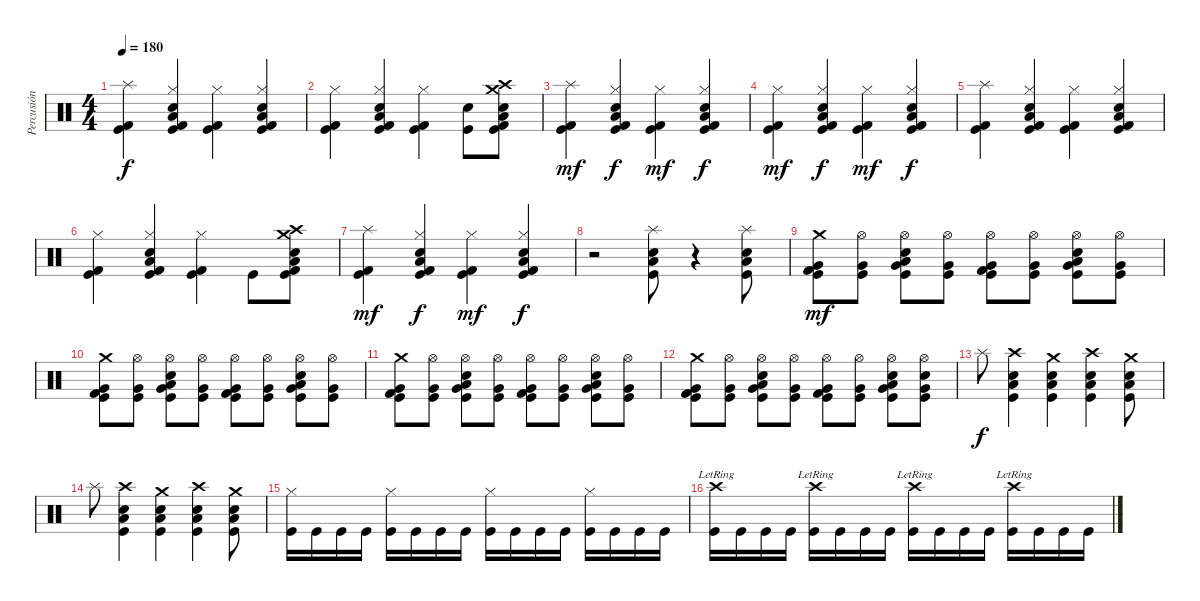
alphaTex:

\track ("Percusión" "Percusión") {instrument percussion}
\staff {score}
\articulation defaults
\ts (4 4)
\tempo 180
\clef neutral
\ks c
("Splash (hit)" "Kick (hit) 2" "Kick (hit)").4{dy f} ("Hi-Hat (closed)" "Electric Snare (hit)" "Low Tom (hit)" "Kick (hit) 2" "Kick (hit)").4 ("Hi-Hat (closed)" "Kick (hit) 2" "Kick (hit)").4 ("Hi-Hat (closed)" "Electric Snare (hit)" "Low Tom (hit)" "Kick (hit) 2" "Kick (hit)").4 |
("Hi-Hat (closed)" "Kick (hit) 2" "Kick (hit)").4 ("Hi-Hat (closed)" "Electric Snare (hit)" "Low Tom (hit)" "Kick (hit) 2" "Kick (hit)").4 ("Hi-Hat (closed)" "Kick (hit) 2" "Kick (hit)").4 ("Electric Snare (hit)" "Kick (hit)").8 ("Crash high (hit)" "Electric Snare (hit)" "Low Tom (hit)" "Crash medium (hit)" "Kick (hit) 2" "Kick (hit)").8 |
("Splash (hit)" "Kick (hit) 2" "Kick (hit)").4{dy mf} ("Hi-Hat (closed)" "Electric Snare (hit)" "Low Tom (hit)" "Kick (hit) 2" "Kick (hit)").4{dy f} ("Hi-Hat (closed)" "Kick (hit) 2" "Kick (hit)").4{dy mf} ("Hi-Hat (closed)" "Electric Snare (hit)" "Low Tom (hit)" "Kick (hit) 2" "Kick (hit)").4{dy f} |
("Hi-Hat (closed)" "Kick (hit) 2" "Kick (hit)").4{dy mf} ("Hi-Hat (closed)" "Electric Snare (hit)" "Low Tom (hit)" "Kick (hit) 2" "Kick (hit)").4{dy f} ("Hi-Hat (closed)" "Kick (hit) 2" "Kick (hit)").4{dy mf} ("Hi-Hat (closed)" "Electric Snare (hit)" "Low Tom (hit)" "Kick (hit) 2" "Kick (hit)").4{dy f} |
("Splash (hit)" "Kick (hit) 2" "Kick (hit)").4 ("Hi-Hat (closed)" "Electric Snare (hit)" "Low Tom (hit)" "Kick (hit) 2" "Kick (hit)").4 ("Hi-Hat (closed)" "Kick (hit) 2" "Kick (hit)").4 ("Hi-Hat (closed)" "Electric Snare (hit)" "Low Tom (hit)" "Kick (hit) 2" "Kick (hit)").4 |
("Hi-Hat (closed)" "Kick (hit) 2" "Kick (hit)").4 ("Hi-Hat (closed)" "Electric Snare (hit)" "Low Tom (hit)" "Kick (hit) 2" "Kick (hit)").4 ("Hi-Hat (closed)" "Kick (hit) 2" "Kick (hit)").4 "Kick (hit)".8 ("Crash high (hit)" "Electric Snare (hit)" "Low Tom (hit)" "Crash medium (hit)" "Kick (hit) 2" "Kick (hit)").8 |
("Splash (hit)" "Kick (hit) 2" "Kick (hit)").4{dy mf} ("Hi-Hat (closed)" "Electric Snare (hit)" "Low Tom (hit)" "Kick (hit) 2" "Kick (hit)").4{dy f} ("Hi-Hat (closed)" "Kick (hit) 2" "Kick (hit)").4{dy mf} ("Hi-Hat (closed)" "Electric Snare (hit)" "Low Tom (hit)" "Kick (hit) 2" "Kick (hit)").4{dy f} |
r.2 ("Kick (hit)" "Splash (hit)" "Low Tom (hit)" "Electric Snare (hit)").8 r.4 ("Splash (hit)" "Kick (hit)" "Low Tom (hit)" "Electric Snare (hit)").8 |
("Crash medium (hit)" "Very Low Tom (hit)" "Kick (hit) 2" "Kick (hit)").8{dy mf} ("Hi-Hat (open)" "Very Low Tom (hit)" "Kick (hit)").8 ("Hi-Hat (open)" "Electric Snare (hit)" "Low Floor Tom (hit)" "Very Low Tom (hit)" "Kick (hit)").8 ("Hi-Hat (open)" "Very Low Tom (hit)" "Kick (hit)").8 ("Hi-Hat (open)" "Very Low Tom (hit)" "Kick (hit) 2" "Kick (hit)").8 ("Hi-Hat (open)" "Very Low Tom (hit)" "Kick (hit)").8 ("Hi-Hat (open)" "Electric Snare (hit)" "Low Floor Tom (hit)" "Very Low Tom (hit)" "Kick (hit)").8 ("Hi-Hat (open)" "Very Low Tom (hit)" "Kick (hit)").8 |
("Crash medium (hit)" "Very Low Tom (hit)" "Kick (hit) 2" "Kick (hit)").8 ("Hi-Hat (open)" "Very Low Tom (hit)" "Kick (hit)").8 ("Hi-Hat (open)" "Electric Snare (hit)" "Low Floor Tom (hit)" "Very Low Tom (hit)" "Kick (hit)").8 ("Hi-Hat (open)" "Very Low Tom (hit)" "Kick (hit)").8 ("Hi-Hat (open)" "Very Low Tom (hit)" "Kick (hit) 2" "Kick (hit)").8 ("Hi-Hat (open)" "Very Low Tom (hit)" "Kick (hit)").8 ("Hi-Hat (open)" "Electric Snare (hit)" "Low Floor Tom (hit)" "Very Low Tom (hit)" "Kick (hit)").8 ("Hi-Hat (open)" "Very Low Tom (hit)" "Kick (hit)").8 |
("Crash medium (hit)" "Very Low Tom (hit)" "Kick (hit) 2" "Kick (hit)").8 ("Hi-Hat (open)" "Very Low Tom (hit)" "Kick (hit)").8 ("Hi-Hat (open)" "Electric Snare (hit)" "Low Floor Tom (hit)" "Very Low Tom (hit)" "Kick (hit)").8 ("Hi-Hat (open)" "Very Low Tom (hit)" "Kick (hit)").8 ("Hi-Hat (open)" "Very Low Tom (hit)" "Kick (hit) 2" "Kick (hit)").8 ("Hi-Hat (open)" "Very Low Tom (hit)" "Kick (hit)").8 ("Hi-Hat (open)" "Electric Snare (hit)" "Low Floor Tom (hit)" "Very Low Tom (hit)" "Kick (hit)").8 ("Hi-Hat (open)" "Very Low Tom (hit)" "Kick (hit)").8 |
("Crash medium (hit)" "Very Low Tom (hit)" "Kick (hit) 2" "Kick (hit)").8 ("Hi-Hat (open)" "Very Low Tom (hit)" "Kick (hit)").8 ("Hi-Hat (open)" "Electric Snare (hit)" "Low Floor Tom (hit)" "Very Low Tom (hit)" "Kick (hit)").8 ("Hi-Hat (open)" "Very Low Tom (hit)" "Kick (hit)").8 ("Hi-Hat (open)" "Very Low Tom (hit)" "Kick (hit) 2" "Kick (hit)").8 ("Hi-Hat (open)" "Very Low Tom (hit)" "Kick (hit)").8 ("Hi-Hat (open)" "Electric Snare (hit)" "Low Floor Tom (hit)" "Very Low Tom (hit)" "Kick (hit)").8 ("Hi-Hat (open)" "Electric Snare (hit)" "Very Low Tom (hit)" "Kick (hit)").8 |
"Splash (hit)".8{dy f} ("Kick (hit)" "Crash high (hit)" "Low Tom (hit)" "Electric Snare (hit)").4 ("Kick (hit)" "Crash medium (hit)" "Low Tom (hit)" "Electric Snare (hit)").4 ("Kick (hit)" "Crash high (hit)" "Low Tom (hit)" "Electric Snare (hit)").4 ("Kick (hit)" "Crash medium (hit)" "Low Tom (hit)" "Electric Snare (hit)").8 |
"Splash (hit)".8 ("Kick (hit)" "Crash high (hit)" "Low Tom (hit)" "Electric Snare (hit)").4 ("Kick (hit)" "Crash medium (hit)" "Low Tom (hit)" "Electric Snare (hit)").4 ("Kick (hit)" "Crash high (hit)" "Low Tom (hit)" "Electric Snare (hit)").4 ("Kick (hit)" "Crash medium (hit)" "Low Tom (hit)" "Electric Snare (hit)").8 |
("Hi-Hat (closed)" "Kick (hit)").16 "Kick (hit)".16 "Kick (hit)".16 "Kick (hit)".16 ("Hi-Hat (closed)" "Kick (hit)").16 "Kick (hit)".16 "Kick (hit)".16 "Kick (hit)".16 ("Hi-Hat (closed)" "Kick (hit)").16 "Kick (hit)".16 "Kick (hit)".16 "Kick (hit)".16 ("Hi-Hat (closed)" "Kick (hit)").16 "Kick (hit)".16 "Kick (hit)".16 "Kick (hit)".16 |
("Crash high (hit)"{lr} "Kick (hit)").16 "Kick (hit)".16 "Kick (hit)".16 "Kick (hit)".16 ("Crash high (hit)"{lr} "Kick (hit)").16 "Kick (hit)".16 "Kick (hit)".16 "Kick (hit)".16 ("Crash high (hit)"{lr} "Kick (hit)").16 "Kick (hit)".16 "Kick (hit)".16 "Kick (hit)".16 ("Crash high (hit)"{lr} "Kick (hit)").16 "Kick (hit)".16 "Kick (hit)".16 "Kick (hit)".16
